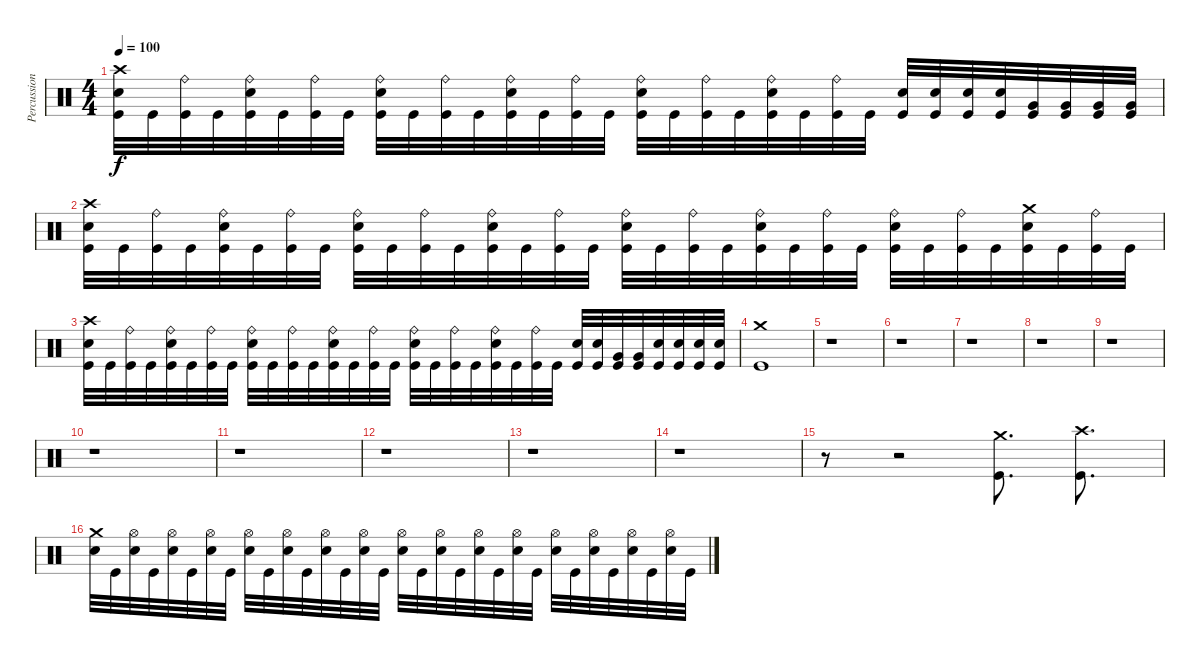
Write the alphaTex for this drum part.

\track ("Percussion" "Percussion") {instrument percussion}
\staff {score}
\articulation defaults
\ts (4 4)
\tempo 100
\clef neutral
\ks c
("Crash high (hit)" "Electric Snare (hit)" "Kick (hit)").32{dy f} "Kick (hit)".32 ("Ride (bell)" "Kick (hit)").32 "Kick (hit)".32 ("Ride (bell)" "Electric Snare (hit)" "Kick (hit)").32 "Kick (hit)".32 ("Ride (bell)" "Kick (hit)").32 "Kick (hit)".32 ("Ride (bell)" "Electric Snare (hit)" "Kick (hit)").32 "Kick (hit)".32 ("Ride (bell)" "Kick (hit)").32 "Kick (hit)".32 ("Ride (bell)" "Electric Snare (hit)" "Kick (hit)").32 "Kick (hit)".32 ("Ride (bell)" "Kick (hit)").32 "Kick (hit)".32 ("Ride (bell)" "Electric Snare (hit)" "Kick (hit)").32 "Kick (hit)".32 ("Ride (bell)" "Kick (hit)").32 "Kick (hit)".32 ("Ride (bell)" "Electric Snare (hit)" "Kick (hit)").32 "Kick (hit)".32 ("Ride (bell)" "Kick (hit)").32 "Kick (hit)".32 ("Electric Snare (hit)" "Kick (hit)").32 ("Electric Snare (hit)" "Kick (hit)").32 ("Electric Snare (hit)" "Kick (hit)").32 ("Electric Snare (hit)" "Kick (hit)").32 ("Very Low Tom (hit)" "Kick (hit)").32 ("Very Low Tom (hit)" "Kick (hit)").32 ("Very Low Tom (hit)" "Kick (hit)").32 ("Very Low Tom (hit)" "Kick (hit)").32 |
("Crash high (hit)" "Electric Snare (hit)" "Kick (hit)").32 "Kick (hit)".32 ("Ride (bell)" "Kick (hit)").32 "Kick (hit)".32 ("Ride (bell)" "Electric Snare (hit)" "Kick (hit)").32 "Kick (hit)".32 ("Ride (bell)" "Kick (hit)").32 "Kick (hit)".32 ("Ride (bell)" "Electric Snare (hit)" "Kick (hit)").32 "Kick (hit)".32 ("Ride (bell)" "Kick (hit)").32 "Kick (hit)".32 ("Ride (bell)" "Electric Snare (hit)" "Kick (hit)").32 "Kick (hit)".32 ("Ride (bell)" "Kick (hit)").32 "Kick (hit)".32 ("Ride (bell)" "Electric Snare (hit)" "Kick (hit)").32 "Kick (hit)".32 ("Ride (bell)" "Kick (hit)").32 "Kick (hit)".32 ("Ride (bell)" "Electric Snare (hit)" "Kick (hit)").32 "Kick (hit)".32 ("Ride (bell)" "Kick (hit)").32 "Kick (hit)".32 ("Ride (bell)" "Electric Snare (hit)" "Kick (hit)").32 "Kick (hit)".32 ("Ride (bell)" "Kick (hit)").32 "Kick (hit)".32 ("Crash medium (hit)" "Electric Snare (hit)" "Kick (hit)").32 "Kick (hit)".32 ("Ride (bell)" "Kick (hit)").32 "Kick (hit)".32 |
("Crash high (hit)" "Electric Snare (hit)" "Kick (hit)").32 "Kick (hit)".32 ("Ride (bell)" "Kick (hit)").32 "Kick (hit)".32 ("Ride (bell)" "Electric Snare (hit)" "Kick (hit)").32 "Kick (hit)".32 ("Ride (bell)" "Kick (hit)").32 "Kick (hit)".32 ("Ride (bell)" "Electric Snare (hit)" "Kick (hit)").32 "Kick (hit)".32 ("Ride (bell)" "Kick (hit)").32 "Kick (hit)".32 ("Ride (bell)" "Electric Snare (hit)" "Kick (hit)").32 "Kick (hit)".32 ("Ride (bell)" "Kick (hit)").32 "Kick (hit)".32 ("Ride (bell)" "Electric Snare (hit)" "Kick (hit)").32 "Kick (hit)".32 ("Ride (bell)" "Kick (hit)").32 "Kick (hit)".32 ("Ride (bell)" "Electric Snare (hit)" "Kick (hit)").32 "Kick (hit)".32 ("Ride (bell)" "Kick (hit)").32 "Kick (hit)".32 ("Electric Snare (hit)" "Kick (hit)").32 ("Electric Snare (hit)" "Kick (hit)").32 ("Very Low Tom (hit)" "Kick (hit)").32 ("Very Low Tom (hit)" "Kick (hit)").32 ("Electric Snare (hit)" "Kick (hit)").32 ("Electric Snare (hit)" "Kick (hit)").32 ("Electric Snare (hit)" "Kick (hit)").32 ("Electric Snare (hit)" "Kick (hit)").32 |
("Crash medium (hit)" "Kick (hit)").1 |
r.1 |
r.1 |
r.1 |
r.1 |
r.1 |
r.1 |
r.1 |
r.1 |
r.1 |
r.1 |
r.8 r.2 ("Crash medium (hit)" "Kick (hit)").8{d} ("Crash high (hit)" "Kick (hit)").8{d} |
("Crash medium (hit)" "Electric Snare (hit)").32 "Kick (hit)".32 ("Hi-Hat (open)" "Electric Snare (hit)").32 "Kick (hit)".32 ("Hi-Hat (open)" "Electric Snare (hit)").32 "Kick (hit)".32 ("Hi-Hat (open)" "Electric Snare (hit)").32 "Kick (hit)".32 ("Hi-Hat (open)" "Electric Snare (hit)").32 "Kick (hit)".32 ("Hi-Hat (open)" "Electric Snare (hit)").32 "Kick (hit)".32 ("Hi-Hat (open)" "Electric Snare (hit)").32 "Kick (hit)".32 ("Hi-Hat (open)" "Electric Snare (hit)").32 "Kick (hit)".32 ("Hi-Hat (open)" "Electric Snare (hit)").32 "Kick (hit)".32 ("Hi-Hat (open)" "Electric Snare (hit)").32 "Kick (hit)".32 ("Hi-Hat (open)" "Electric Snare (hit)").32 "Kick (hit)".32 ("Hi-Hat (open)" "Electric Snare (hit)").32 "Kick (hit)".32 ("Hi-Hat (open)" "Electric Snare (hit)").32 "Kick (hit)".32 ("Hi-Hat (open)" "Electric Snare (hit)").32 "Kick (hit)".32 ("Hi-Hat (open)" "Electric Snare (hit)").32 "Kick (hit)".32 ("Hi-Hat (open)" "Electric Snare (hit)").32 "Kick (hit)".32
